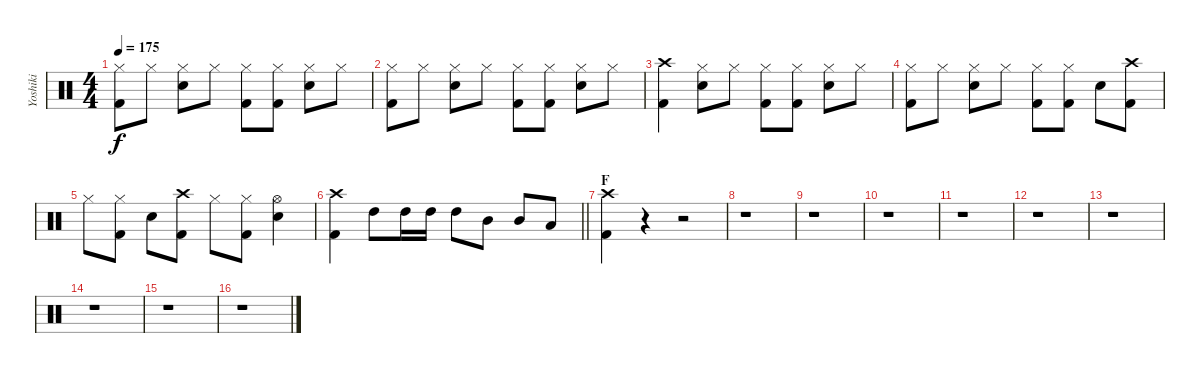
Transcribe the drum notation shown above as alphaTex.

\track ("Yoshiki" "Yoshiki") {instrument percussion}
\staff {score}
\articulation defaults
\ts (4 4)
\tempo 175
\clef neutral
\ks c
("Hi-Hat (closed)" "Kick (hit) 2").8{dy f} "Hi-Hat (closed)".8 ("Hi-Hat (closed)" "Electric Snare (hit)").8 "Hi-Hat (closed)".8 ("Hi-Hat (closed)" "Kick (hit) 2").8 ("Hi-Hat (closed)" "Kick (hit) 2").8 ("Hi-Hat (closed)" "Electric Snare (hit)").8 "Hi-Hat (closed)".8 |
("Hi-Hat (closed)" "Kick (hit) 2").8 "Hi-Hat (closed)".8 ("Hi-Hat (closed)" "Electric Snare (hit)").8 "Hi-Hat (closed)".8 ("Hi-Hat (closed)" "Kick (hit) 2").8 ("Hi-Hat (closed)" "Kick (hit) 2").8 ("Hi-Hat (closed)" "Electric Snare (hit)").8 "Hi-Hat (closed)".8 |
("Crash high (hit)" "Kick (hit) 2").4 ("Hi-Hat (closed)" "Electric Snare (hit)").8 "Hi-Hat (closed)".8 ("Hi-Hat (closed)" "Kick (hit) 2").8 ("Hi-Hat (closed)" "Kick (hit) 2").8 ("Hi-Hat (closed)" "Electric Snare (hit)").8 "Hi-Hat (closed)".8 |
("Hi-Hat (closed)" "Kick (hit) 2").8 "Hi-Hat (closed)".8 ("Hi-Hat (closed)" "Electric Snare (hit)").8 "Hi-Hat (closed)".8 ("Hi-Hat (closed)" "Kick (hit) 2").8 ("Hi-Hat (closed)" "Kick (hit) 2").8 "Electric Snare (hit)".8 ("Crash high (hit)" "Kick (hit) 2").8 |
"Hi-Hat (closed)".8 ("Hi-Hat (closed)" "Kick (hit) 2").8 "Electric Snare (hit)".8 ("Crash high (hit)" "Kick (hit) 2").8 "Hi-Hat (closed)".8 ("Hi-Hat (closed)" "Kick (hit) 2").8 ("Hi-Hat (open)" "Electric Snare (hit)").4 |
\barLineRight lightlight
("Crash high (hit)" "Kick (hit) 2").4 "High Tom (hit)".8 "High Tom (hit)".16 "High Tom (hit)".16 "High Tom (hit)".8 "Mid Tom (hit)".8 "Mid Tom (hit)".8 "Low Tom (hit)".8 |
\section ("" "F")
("Crash high (hit)" "Kick (hit) 2").4 r.4 r.2 |
r.1 |
r.1 |
r.1 |
r.1 |
r.1 |
r.1 |
r.1 |
r.1 |
r.1
